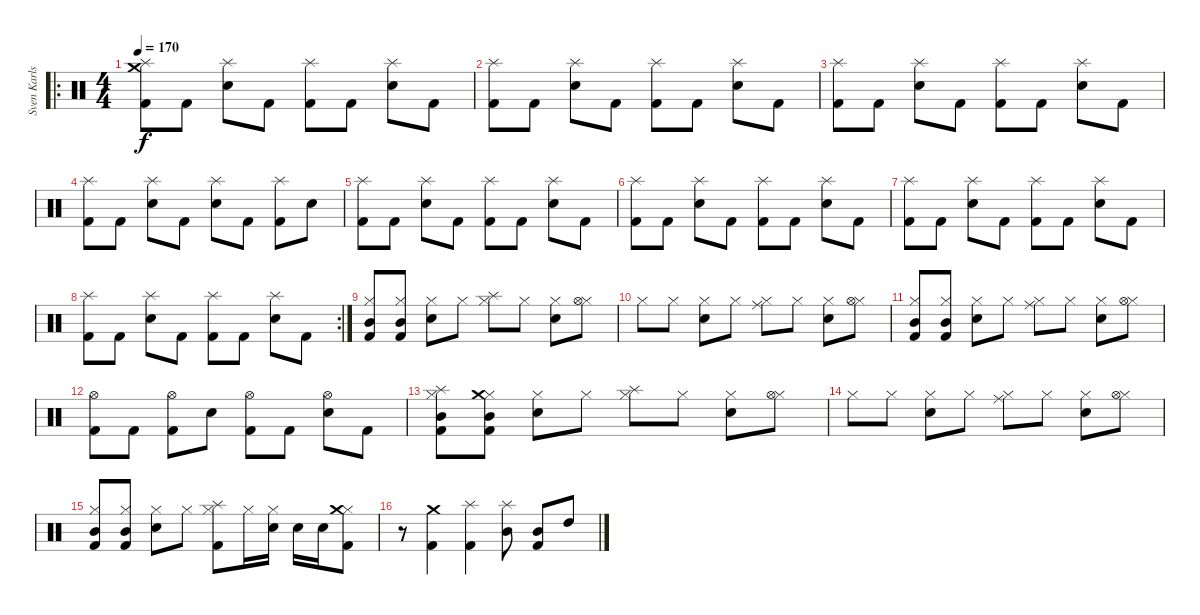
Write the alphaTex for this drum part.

\track ("Sven Karlsson" "Sven Karls") {instrument percussion}
\staff {score}
\articulation defaults
\ro
\ts (4 4)
\tempo 170
\clef neutral
\ks c
("Splash (hit)" "Crash medium (hit)" "Kick (hit) 2").8{dy f} "Kick (hit) 2".8 ("Splash (hit)" "Electric Snare (hit)").8 "Kick (hit) 2".8 ("Splash (hit)" "Kick (hit) 2").8 "Kick (hit) 2".8 ("Splash (hit)" "Electric Snare (hit)").8 "Kick (hit) 2".8 |
("Splash (hit)" "Kick (hit) 2").8 "Kick (hit) 2".8 ("Splash (hit)" "Electric Snare (hit)").8 "Kick (hit) 2".8 ("Splash (hit)" "Kick (hit) 2").8 "Kick (hit) 2".8 ("Splash (hit)" "Electric Snare (hit)").8 "Kick (hit) 2".8 |
("Splash (hit)" "Kick (hit) 2").8 "Kick (hit) 2".8 ("Splash (hit)" "Electric Snare (hit)").8 "Kick (hit) 2".8 ("Splash (hit)" "Kick (hit) 2").8 "Kick (hit) 2".8 ("Splash (hit)" "Electric Snare (hit)").8 "Kick (hit) 2".8 |
("Splash (hit)" "Kick (hit) 2").8 "Kick (hit) 2".8 ("Splash (hit)" "Electric Snare (hit)").8 "Kick (hit) 2".8 ("Splash (hit)" "Electric Snare (hit)").8 "Kick (hit) 2".8 ("Splash (hit)" "Kick (hit) 2").8 "Electric Snare (hit)".8 |
("Splash (hit)" "Kick (hit) 2").8 "Kick (hit) 2".8 ("Splash (hit)" "Electric Snare (hit)").8 "Kick (hit) 2".8 ("Splash (hit)" "Kick (hit) 2").8 "Kick (hit) 2".8 ("Splash (hit)" "Electric Snare (hit)").8 "Kick (hit) 2".8 |
("Splash (hit)" "Kick (hit) 2").8 "Kick (hit) 2".8 ("Splash (hit)" "Electric Snare (hit)").8 "Kick (hit) 2".8 ("Splash (hit)" "Kick (hit) 2").8 "Kick (hit) 2".8 ("Splash (hit)" "Electric Snare (hit)").8 "Kick (hit) 2".8 |
("Splash (hit)" "Kick (hit) 2").8 "Kick (hit) 2".8 ("Splash (hit)" "Electric Snare (hit)").8 "Kick (hit) 2".8 ("Splash (hit)" "Kick (hit) 2").8 "Kick (hit) 2".8 ("Splash (hit)" "Electric Snare (hit)").8 "Kick (hit) 2".8 |
\rc 2
("Splash (hit)" "Kick (hit) 2").8 "Kick (hit) 2".8 ("Splash (hit)" "Electric Snare (hit)").8 "Kick (hit) 2".8 ("Splash (hit)" "Kick (hit) 2").8 "Kick (hit) 2".8 ("Splash (hit)" "Electric Snare (hit)").8 "Kick (hit) 2".8 |
("Hi-Hat (closed)" "Mid Tom (hit)" "Kick (hit) 2").8 ("Hi-Hat (closed)" "Mid Tom (hit)" "Kick (hit) 2").8 ("Hi-Hat (closed)" "Electric Snare (hit)").8 "Hi-Hat (closed)".8 ("Hi-Hat (closed)" "Splash (hit)").8 "Hi-Hat (closed)".8 ("Hi-Hat (closed)" "Electric Snare (hit)").8 ("Hi-Hat (closed)" "Hi-Hat (open)").8 |
"Hi-Hat (closed)".8 "Hi-Hat (closed)".8 ("Hi-Hat (closed)" "Electric Snare (hit)").8 "Hi-Hat (closed)".8 ("Hi-Hat (closed)" "Ride (middle)").8 "Hi-Hat (closed)".8 ("Hi-Hat (closed)" "Electric Snare (hit)").8 ("Hi-Hat (closed)" "Hi-Hat (open)").8 |
("Hi-Hat (closed)" "Mid Tom (hit)" "Kick (hit) 2").8 ("Hi-Hat (closed)" "Mid Tom (hit)" "Kick (hit) 2").8 ("Hi-Hat (closed)" "Electric Snare (hit)").8 "Hi-Hat (closed)".8 ("Hi-Hat (closed)" "Ride (middle)").8 "Hi-Hat (closed)".8 ("Hi-Hat (closed)" "Electric Snare (hit)").8 ("Hi-Hat (closed)" "Hi-Hat (open)").8 |
("Hi-Hat (open)" "Kick (hit) 2").8 "Kick (hit) 2".8 ("Hi-Hat (open)" "Kick (hit) 2").8 "Electric Snare (hit)".8 ("Hi-Hat (open)" "Kick (hit) 2").8 "Kick (hit) 2".8 ("Hi-Hat (open)" "Electric Snare (hit)").8 "Kick (hit) 2".8 |
("Hi-Hat (closed)" "Splash (hit)" "Mid Tom (hit)" "Kick (hit) 2").8 ("Hi-Hat (closed)" "Crash medium (hit)" "Mid Tom (hit)" "Kick (hit) 2").8 ("Hi-Hat (closed)" "Electric Snare (hit)").8 "Hi-Hat (closed)".8 ("Hi-Hat (closed)" "Splash (hit)").8 "Hi-Hat (closed)".8 ("Hi-Hat (closed)" "Electric Snare (hit)").8 ("Hi-Hat (closed)" "Hi-Hat (open)").8 |
"Hi-Hat (closed)".8 "Hi-Hat (closed)".8 ("Hi-Hat (closed)" "Electric Snare (hit)").8 "Hi-Hat (closed)".8 ("Hi-Hat (closed)" "Ride (middle)").8 "Hi-Hat (closed)".8 ("Hi-Hat (closed)" "Electric Snare (hit)").8 ("Hi-Hat (closed)" "Hi-Hat (open)").8 |
("Hi-Hat (closed)" "Mid Tom (hit)" "Kick (hit) 2").8 ("Hi-Hat (closed)" "Mid Tom (hit)" "Kick (hit) 2").8 ("Hi-Hat (closed)" "Electric Snare (hit)").8 "Hi-Hat (closed)".8 ("Hi-Hat (closed)" "Splash (hit)" "Kick (hit) 2").8 "Hi-Hat (closed)".16 ("Hi-Hat (closed)" "Electric Snare (hit)").16 "Electric Snare (hit)".16 "Electric Snare (hit)".16 ("Hi-Hat (closed)" "Crash medium (hit)" "Kick (hit) 2").8 |
r.8 ("Crash medium (hit)" "Kick (hit) 2").4 ("Splash (hit)" "Kick (hit) 2").4 ("Splash (hit)" "Mid Tom (hit)").8 ("Mid Tom (hit)" "Kick (hit) 2").8 "High Tom (hit)".8
